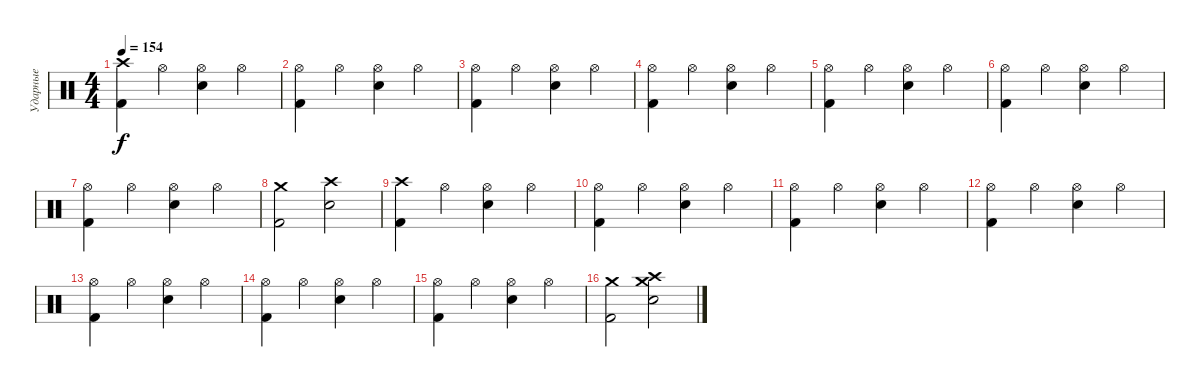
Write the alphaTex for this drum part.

\track ("Ударные" "Ударные") {instrument percussion}
\staff {score}
\articulation defaults
\ts (4 4)
\tempo 154
\clef neutral
\ks c
("Crash high (hit)" "Kick (hit) 2").4{dy f} "Hi-Hat (open)".4 ("Hi-Hat (open)" "Snare (hit) 2").4 "Hi-Hat (open)".4 |
("Hi-Hat (open)" "Kick (hit) 2").4 "Hi-Hat (open)".4 ("Hi-Hat (open)" "Snare (hit) 2").4 "Hi-Hat (open)".4 |
("Hi-Hat (open)" "Kick (hit) 2").4 "Hi-Hat (open)".4 ("Hi-Hat (open)" "Snare (hit) 2").4 "Hi-Hat (open)".4 |
("Hi-Hat (open)" "Kick (hit) 2").4 "Hi-Hat (open)".4 ("Hi-Hat (open)" "Snare (hit) 2").4 "Hi-Hat (open)".4 |
("Hi-Hat (open)" "Kick (hit) 2").4 "Hi-Hat (open)".4 ("Hi-Hat (open)" "Snare (hit) 2").4 "Hi-Hat (open)".4 |
("Hi-Hat (open)" "Kick (hit) 2").4 "Hi-Hat (open)".4 ("Hi-Hat (open)" "Snare (hit) 2").4 "Hi-Hat (open)".4 |
("Hi-Hat (open)" "Kick (hit) 2").4 "Hi-Hat (open)".4 ("Hi-Hat (open)" "Snare (hit) 2").4 "Hi-Hat (open)".4 |
("Crash medium (hit)" "Kick (hit) 2").2 ("Crash high (hit)" "Snare (hit) 2").2 |
("Crash high (hit)" "Kick (hit) 2").4 "Hi-Hat (open)".4 ("Hi-Hat (open)" "Snare (hit) 2").4 "Hi-Hat (open)".4 |
("Hi-Hat (open)" "Kick (hit) 2").4 "Hi-Hat (open)".4 ("Hi-Hat (open)" "Snare (hit) 2").4 "Hi-Hat (open)".4 |
("Hi-Hat (open)" "Kick (hit) 2").4 "Hi-Hat (open)".4 ("Hi-Hat (open)" "Snare (hit) 2").4 "Hi-Hat (open)".4 |
("Hi-Hat (open)" "Kick (hit) 2").4 "Hi-Hat (open)".4 ("Hi-Hat (open)" "Snare (hit) 2").4 "Hi-Hat (open)".4 |
("Hi-Hat (open)" "Kick (hit) 2").4 "Hi-Hat (open)".4 ("Hi-Hat (open)" "Snare (hit) 2").4 "Hi-Hat (open)".4 |
("Hi-Hat (open)" "Kick (hit) 2").4 "Hi-Hat (open)".4 ("Hi-Hat (open)" "Snare (hit) 2").4 "Hi-Hat (open)".4 |
("Hi-Hat (open)" "Kick (hit) 2").4 "Hi-Hat (open)".4 ("Hi-Hat (open)" "Snare (hit) 2").4 "Hi-Hat (open)".4 |
("Crash medium (hit)" "Kick (hit) 2").2 ("Crash high (hit)" "Crash medium (hit)" "Snare (hit) 2").2
